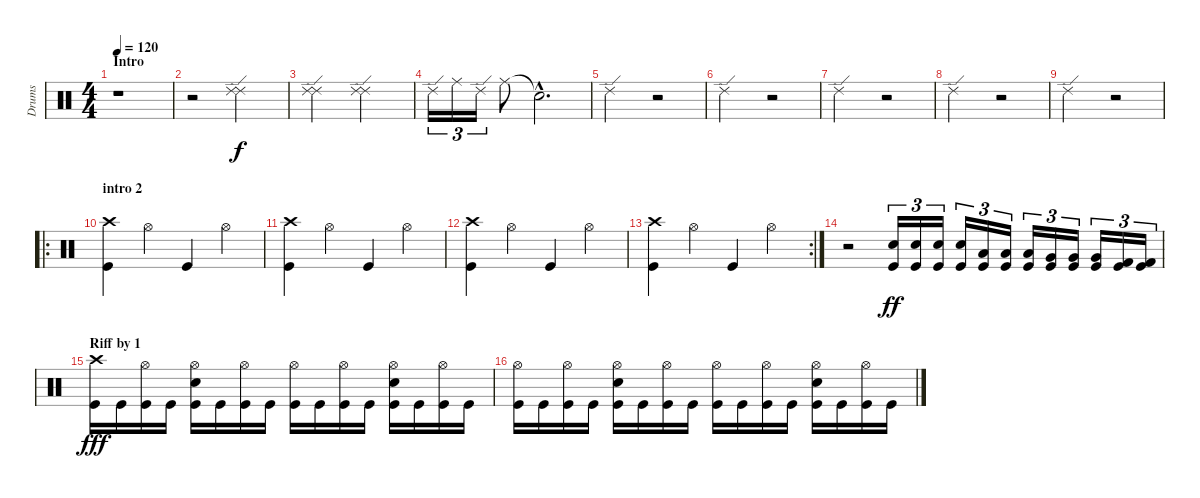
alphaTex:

\track ("Drums" "Drums") {instrument percussion}
\staff {score}
\articulation defaults
\ts (4 4)
\section ("" "Intro")
\tempo 120
\clef neutral
\ks c
r.1{dy f} |
r.2 ("Ride (edge) 2" "Ride (edge) 2").2 |
("Ride (edge) 2" "Ride (edge) 2").2 ("Ride (edge) 2" "Ride (edge) 2").2 |
"Ride (edge) 2".16{tu (3 2)} "Ride (middle)".16{tu (3 2)} "Ride (edge) 2".16{tu (3 2)} "Ride (middle)".8 "Snare (hit)"{hac t}.2{d} |
"Ride (edge) 2".2 r.2 |
"Ride (edge) 2".2 r.2 |
"Ride (edge) 2".2 r.2 |
"Ride (edge) 2".2 r.2 |
"Ride (edge) 2".2 r.2 |
\ro
\section ("" "intro 2")
("Crash high (hit)" "Kick (hit)").4 "Hi-Hat (open)".4 "Kick (hit)".4 "Hi-Hat (open)".4 |
("Crash high (hit)" "Kick (hit)").4 "Hi-Hat (open)".4 "Kick (hit)".4 "Hi-Hat (open)".4 |
("Crash high (hit)" "Kick (hit)").4 "Hi-Hat (open)".4 "Kick (hit)".4 "Hi-Hat (open)".4 |
\rc 2
("Crash high (hit)" "Kick (hit)").4 "Hi-Hat (open)".4 "Kick (hit)".4 "Hi-Hat (open)".4 |
r.2 ("Electric Snare (hit)" "Kick (hit)").16{tu (3 2) dy ff} ("Electric Snare (hit)" "Kick (hit)").16{tu (3 2)} ("Electric Snare (hit)" "Kick (hit)").16{tu (3 2)} ("Electric Snare (hit)" "Kick (hit)").16{tu (3 2)} ("Low Tom (hit)" "Kick (hit)").16{tu (3 2)} ("Low Tom (hit)" "Kick (hit)").16{tu (3 2)} ("Low Tom (hit)" "Kick (hit)").16{tu (3 2)} ("Very Low Tom (hit)" "Kick (hit)").16{tu (3 2)} ("Very Low Tom (hit)" "Kick (hit)").16{tu (3 2)} ("Very Low Tom (hit)" "Kick (hit)").16{tu (3 2)} ("Kick (hit) 2" "Kick (hit)").16{tu (3 2)} ("Kick (hit) 2" "Kick (hit)").16{tu (3 2)} |
\section ("" "Riff by 1")
("Crash high (hit)" "Kick (hit)").16{dy fff} "Kick (hit)".16 ("Hi-Hat (open)" "Kick (hit)").16 "Kick (hit)".16 ("Hi-Hat (open)" "Electric Snare (hit)" "Kick (hit)").16 "Kick (hit)".16 ("Hi-Hat (open)" "Kick (hit)").16 "Kick (hit)".16 ("Hi-Hat (open)" "Kick (hit)").16 "Kick (hit)".16 ("Hi-Hat (open)" "Kick (hit)").16 "Kick (hit)".16 ("Hi-Hat (open)" "Electric Snare (hit)" "Kick (hit)").16 "Kick (hit)".16 ("Hi-Hat (open)" "Kick (hit)").16 "Kick (hit)".16 |
("Hi-Hat (open)" "Kick (hit)").16 "Kick (hit)".16 ("Hi-Hat (open)" "Kick (hit)").16 "Kick (hit)".16 ("Hi-Hat (open)" "Electric Snare (hit)" "Kick (hit)").16 "Kick (hit)".16 ("Hi-Hat (open)" "Kick (hit)").16 "Kick (hit)".16 ("Hi-Hat (open)" "Kick (hit)").16 "Kick (hit)".16 ("Hi-Hat (open)" "Kick (hit)").16 "Kick (hit)".16 ("Hi-Hat (open)" "Electric Snare (hit)" "Kick (hit)").16 "Kick (hit)".16 ("Hi-Hat (open)" "Kick (hit)").16 "Kick (hit)".16
